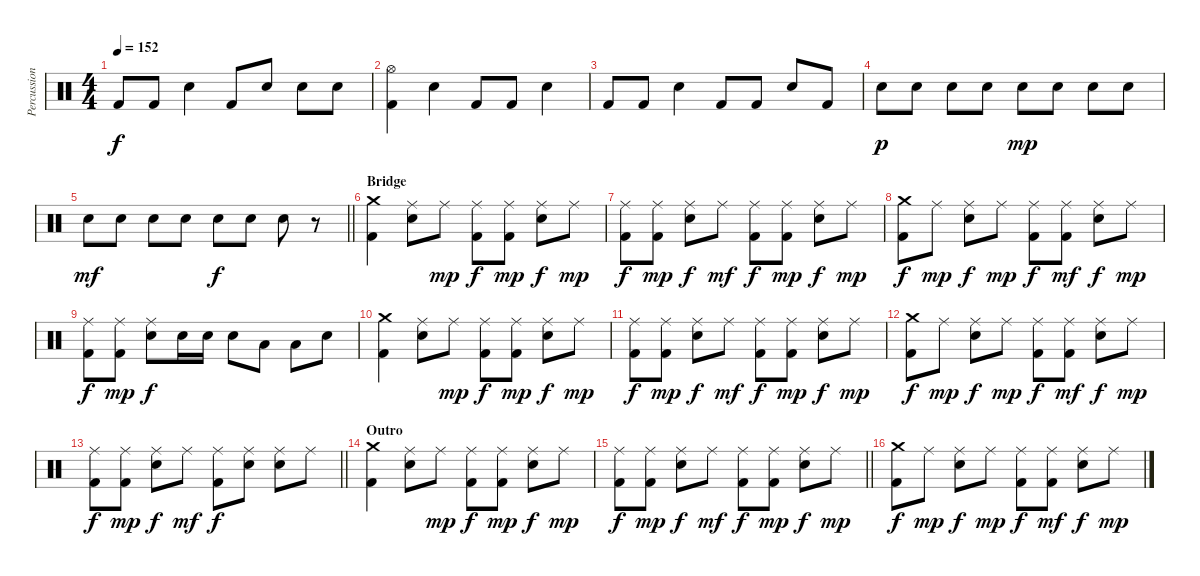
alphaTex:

\track ("Percussion" "Percussion") {instrument percussion}
\staff {score}
\articulation defaults
\ts (4 4)
\tempo 152
\clef neutral
\ks c "Kick (hit) 2".8{dy f} "Kick (hit) 2".8 "Electric Snare (hit)".4 "Kick (hit) 2".8 "Electric Snare (hit)".8 "Electric Snare (hit)".8 "Electric Snare (hit)".8
|
("Hi-Hat (open)" "Kick (hit) 2").4 "Electric Snare (hit)".4 "Kick (hit) 2".8 "Kick (hit) 2".8 "Electric Snare (hit)".4 |
"Kick (hit) 2".8 "Kick (hit) 2".8 "Electric Snare (hit)".4 "Kick (hit) 2".8 "Kick (hit) 2".8 "Electric Snare (hit)".8 "Kick (hit) 2".8 |
"Electric Snare (hit)".8{dy p} "Electric Snare (hit)".8 "Electric Snare (hit)".8 "Electric Snare (hit)".8 "Electric Snare (hit)".8{dy mp} "Electric Snare (hit)".8 "Electric Snare (hit)".8 "Electric Snare (hit)".8 |
\barLineRight lightlight "Electric Snare (hit)".8{dy mf} "Electric Snare (hit)".8 "Electric Snare (hit)".8 "Electric Snare (hit)".8 "Electric Snare (hit)".8{dy f} "Electric Snare (hit)".8 "Electric Snare (hit)".8
r.8 |
\section ("" "Bridge")
("Crash medium (hit)" "Kick (hit) 2").4 ("Ride (middle)" "Electric Snare (hit)").8 "Ride (middle)".8{dy mp} ("Ride (middle)" "Kick (hit) 2").8{dy f} ("Ride (middle)" "Kick (hit) 2").8{dy mp} ("Ride (middle)" "Electric Snare (hit)").8{dy f} "Ride (middle)".8{dy mp} |
("Ride (middle)" "Kick (hit) 2").8{dy f} ("Ride (middle)" "Kick (hit) 2").8{dy mp} ("Ride (middle)" "Electric Snare (hit)").8{dy f} "Ride (middle)".8{dy mf} ("Ride (middle)" "Kick (hit) 2").8{dy f} ("Ride (middle)" "Kick (hit) 2").8{dy mp} ("Ride (middle)" "Electric Snare (hit)").8{dy f} "Ride (middle)".8{dy mp} |
("Crash medium (hit)" "Kick (hit) 2").8{dy f} "Ride (middle)".8{dy mp} ("Ride (middle)" "Electric Snare (hit)").8{dy f} "Ride (middle)".8{dy mp} ("Ride (middle)" "Kick (hit) 2").8{dy f} ("Ride (middle)" "Kick (hit) 2").8{dy mf} ("Ride (middle)" "Electric Snare (hit)").8{dy f} "Ride (middle)".8{dy mp} |
("Ride (middle)" "Kick (hit) 2").8{dy f} ("Ride (middle)" "Kick (hit) 2").8{dy mp} ("Ride (middle)" "Electric Snare (hit)").8{dy f} "Electric Snare (hit)".16 "Electric Snare (hit)".16 "Electric Snare (hit)".8 "Low Tom (hit)".8 "Low Tom (hit)".8 "Electric Snare (hit)".8 |
("Crash medium (hit)" "Kick (hit) 2").4 ("Ride (middle)" "Electric Snare (hit)").8 "Ride (middle)".8{dy mp} ("Ride (middle)" "Kick (hit) 2").8{dy f} ("Ride (middle)" "Kick (hit) 2").8{dy mp} ("Ride (middle)" "Electric Snare (hit)").8{dy f} "Ride (middle)".8{dy mp} |
("Ride (middle)" "Kick (hit) 2").8{dy f} ("Ride (middle)" "Kick (hit) 2").8{dy mp} ("Ride (middle)" "Electric Snare (hit)").8{dy f} "Ride (middle)".8{dy mf} ("Ride (middle)" "Kick (hit) 2").8{dy f} ("Ride (middle)" "Kick (hit) 2").8{dy mp} ("Ride (middle)" "Electric Snare (hit)").8{dy f} "Ride (middle)".8{dy mp} |
("Crash medium (hit)" "Kick (hit) 2").8{dy f} "Ride (middle)".8{dy mp} ("Ride (middle)" "Electric Snare (hit)").8{dy f} "Ride (middle)".8{dy mp} ("Ride (middle)" "Kick (hit) 2").8{dy f} ("Ride (middle)" "Kick (hit) 2").8{dy mf} ("Ride (middle)" "Electric Snare (hit)").8{dy f} "Ride (middle)".8{dy mp} |
\barLineRight lightlight
("Ride (middle)" "Kick (hit) 2").8{dy f} ("Ride (middle)" "Kick (hit) 2").8{dy mp} ("Ride (middle)" "Electric Snare (hit)").8{dy f} "Ride (middle)".8{dy mf} ("Ride (middle)" "Kick (hit) 2").8{dy f} ("Ride (middle)" "Electric Snare (hit)").8 ("Ride (middle)" "Electric Snare (hit)").8 "Ride (middle)".8 |
\section ("" "Outro")
("Crash medium (hit)" "Kick (hit) 2").4 ("Ride (middle)" "Electric Snare (hit)").8 "Ride (middle)".8{dy mp} ("Ride (middle)" "Kick (hit) 2").8{dy f} ("Ride (middle)" "Kick (hit) 2").8{dy mp} ("Ride (middle)" "Electric Snare (hit)").8{dy f} "Ride (middle)".8{dy mp} |
\barLineRight lightlight
("Ride (middle)" "Kick (hit) 2").8{dy f} ("Ride (middle)" "Kick (hit) 2").8{dy mp} ("Ride (middle)" "Electric Snare (hit)").8{dy f} "Ride (middle)".8{dy mf} ("Ride (middle)" "Kick (hit) 2").8{dy f} ("Ride (middle)" "Kick (hit) 2").8{dy mp} ("Ride (middle)" "Electric Snare (hit)").8{dy f} "Ride (middle)".8{dy mp} |
("Crash medium (hit)" "Kick (hit) 2").8{dy f} "Ride (middle)".8{dy mp} ("Ride (middle)" "Electric Snare (hit)").8{dy f} "Ride (middle)".8{dy mp} ("Ride (middle)" "Kick (hit) 2").8{dy f} ("Ride (middle)" "Kick (hit) 2").8{dy mf} ("Ride (middle)" "Electric Snare (hit)").8{dy f} "Ride (middle)".8{dy mp}
